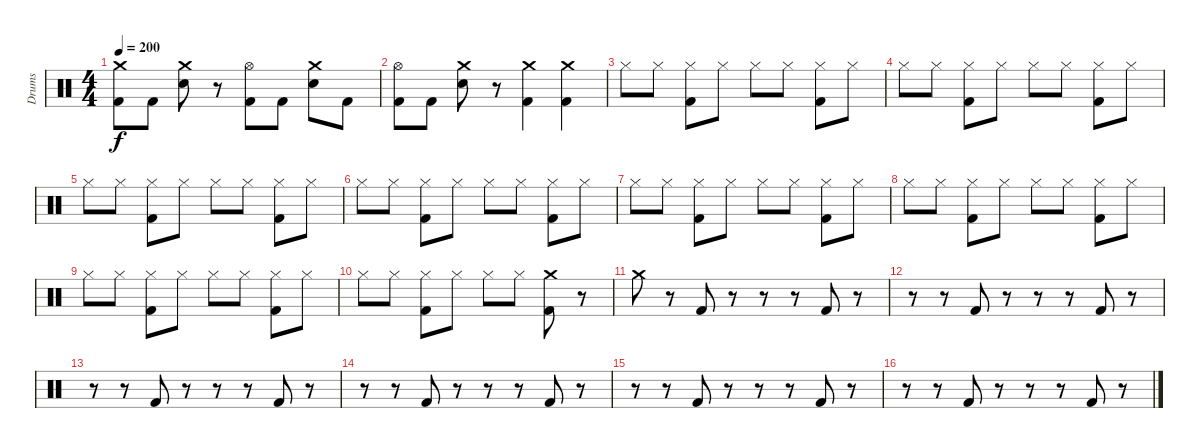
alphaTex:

\track ("Drums" "Drums") {instrument percussion}
\staff {score}
\articulation defaults
\ts (4 4)
\tempo 200
\clef neutral
\ks c
("Crash medium (hit)" "Kick (hit) 2").8{dy f} "Kick (hit) 2".8 ("Crash medium (hit)" "Snare (hit) 2").8 r.8 ("Hi-Hat (open)" "Kick (hit) 2").8 "Kick (hit) 2".8 ("Crash medium (hit)" "Snare (hit) 2").8 "Kick (hit) 2".8 |
("Hi-Hat (open)" "Kick (hit) 2").8 "Kick (hit) 2".8 ("Crash medium (hit)" "Snare (hit) 2").8 r.8 ("Crash medium (hit)" "Kick (hit) 2").4 ("Crash medium (hit)" "Kick (hit) 2").4 |
"Hi-Hat (closed)".8 "Hi-Hat (closed)".8 ("Hi-Hat (closed)" "Kick (hit) 2").8 "Hi-Hat (closed)".8 "Hi-Hat (closed)".8 "Hi-Hat (closed)".8 ("Hi-Hat (closed)" "Kick (hit) 2").8 "Hi-Hat (closed)".8 |
"Hi-Hat (closed)".8 "Hi-Hat (closed)".8 ("Hi-Hat (closed)" "Kick (hit) 2").8 "Hi-Hat (closed)".8 "Hi-Hat (closed)".8 "Hi-Hat (closed)".8 ("Hi-Hat (closed)" "Kick (hit) 2").8 "Hi-Hat (closed)".8 |
"Hi-Hat (closed)".8 "Hi-Hat (closed)".8 ("Hi-Hat (closed)" "Kick (hit) 2").8 "Hi-Hat (closed)".8 "Hi-Hat (closed)".8 "Hi-Hat (closed)".8 ("Hi-Hat (closed)" "Kick (hit) 2").8 "Hi-Hat (closed)".8 |
"Hi-Hat (closed)".8 "Hi-Hat (closed)".8 ("Hi-Hat (closed)" "Kick (hit) 2").8 "Hi-Hat (closed)".8 "Hi-Hat (closed)".8 "Hi-Hat (closed)".8 ("Hi-Hat (closed)" "Kick (hit) 2").8 "Hi-Hat (closed)".8 |
"Hi-Hat (closed)".8 "Hi-Hat (closed)".8 ("Hi-Hat (closed)" "Kick (hit) 2").8 "Hi-Hat (closed)".8 "Hi-Hat (closed)".8 "Hi-Hat (closed)".8 ("Hi-Hat (closed)" "Kick (hit) 2").8 "Hi-Hat (closed)".8 |
"Hi-Hat (closed)".8 "Hi-Hat (closed)".8 ("Hi-Hat (closed)" "Kick (hit) 2").8 "Hi-Hat (closed)".8 "Hi-Hat (closed)".8 "Hi-Hat (closed)".8 ("Hi-Hat (closed)" "Kick (hit) 2").8 "Hi-Hat (closed)".8 |
"Hi-Hat (closed)".8 "Hi-Hat (closed)".8 ("Hi-Hat (closed)" "Kick (hit) 2").8 "Hi-Hat (closed)".8 "Hi-Hat (closed)".8 "Hi-Hat (closed)".8 ("Hi-Hat (closed)" "Kick (hit) 2").8 "Hi-Hat (closed)".8 |
"Hi-Hat (closed)".8 "Hi-Hat (closed)".8 ("Hi-Hat (closed)" "Kick (hit) 2").8 "Hi-Hat (closed)".8 "Hi-Hat (closed)".8 "Hi-Hat (closed)".8 ("Crash medium (hit)" "Kick (hit) 2").8 r.8 |
"Crash medium (hit)".8 r.8 "Kick (hit) 2".8 r.8 r.8 r.8 "Kick (hit) 2".8 r.8 |
r.8 r.8 "Kick (hit) 2".8 r.8 r.8 r.8 "Kick (hit) 2".8 r.8 |
r.8 r.8 "Kick (hit) 2".8 r.8 r.8 r.8 "Kick (hit) 2".8 r.8 |
r.8 r.8 "Kick (hit) 2".8 r.8 r.8 r.8 "Kick (hit) 2".8 r.8 |
r.8 r.8 "Kick (hit) 2".8 r.8 r.8 r.8 "Kick (hit) 2".8 r.8 |
r.8 r.8 "Kick (hit) 2".8 r.8 r.8 r.8 "Kick (hit) 2".8 r.8
